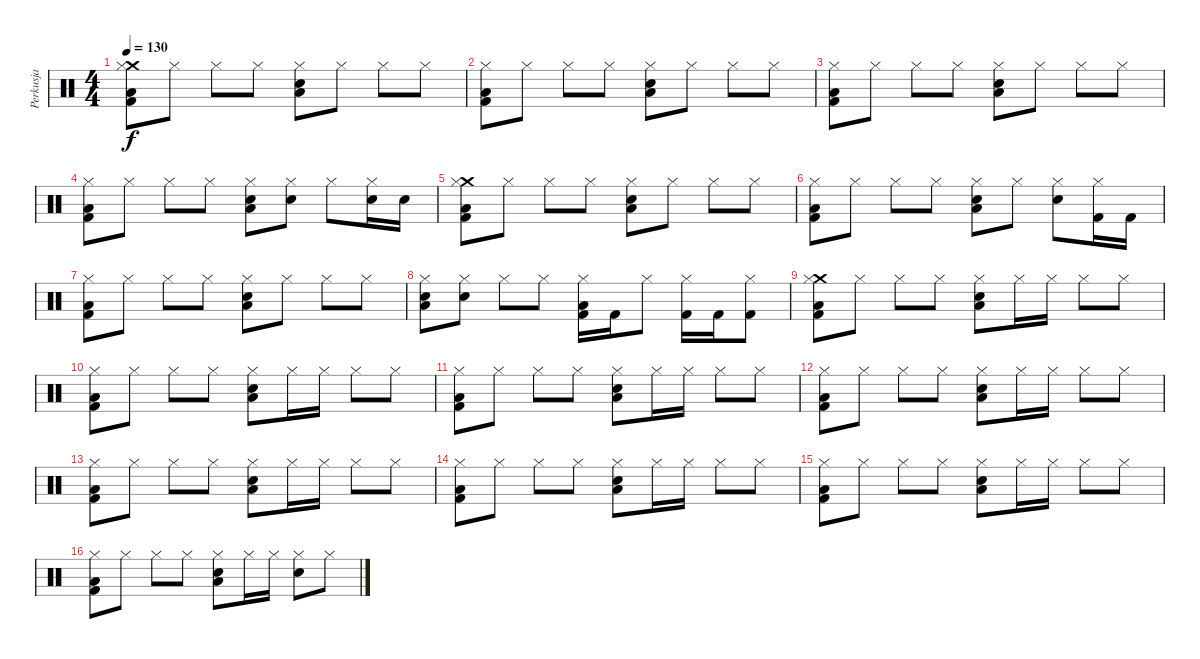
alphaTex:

\track ("Perkusja" "Perkusja") {instrument percussion}
\staff {score}
\articulation defaults
\ts (4 4)
\tempo 130
\clef neutral
\ks c
("Crash medium (hit)" "Kick (hit) 2" "Hi-Hat (closed)" "Low Tom (hit)").8{dy f} "Hi-Hat (closed)".8 "Hi-Hat (closed)".8 "Hi-Hat (closed)".8 ("Snare (hit) 2" "Hi-Hat (closed)" "Low Tom (hit)").8 "Hi-Hat (closed)".8 "Hi-Hat (closed)".8 "Hi-Hat (closed)".8 |
("Kick (hit) 2" "Hi-Hat (closed)" "Low Tom (hit)").8 "Hi-Hat (closed)".8 "Hi-Hat (closed)".8 "Hi-Hat (closed)".8 ("Snare (hit) 2" "Hi-Hat (closed)" "Low Tom (hit)").8 "Hi-Hat (closed)".8 "Hi-Hat (closed)".8 "Hi-Hat (closed)".8 |
("Kick (hit) 2" "Hi-Hat (closed)" "Low Tom (hit)").8 "Hi-Hat (closed)".8 "Hi-Hat (closed)".8 "Hi-Hat (closed)".8 ("Snare (hit) 2" "Hi-Hat (closed)" "Low Tom (hit)").8 "Hi-Hat (closed)".8 "Hi-Hat (closed)".8 "Hi-Hat (closed)".8 |
("Kick (hit) 2" "Hi-Hat (closed)" "Low Tom (hit)").8 "Hi-Hat (closed)".8 "Hi-Hat (closed)".8 "Hi-Hat (closed)".8 ("Snare (hit) 2" "Hi-Hat (closed)" "Low Tom (hit)").8 ("Snare (hit) 2" "Hi-Hat (closed)").8 "Hi-Hat (closed)".8 ("Snare (hit) 2" "Hi-Hat (closed)").16 "Snare (hit) 2".16 |
("Crash medium (hit)" "Kick (hit) 2" "Hi-Hat (closed)" "Low Tom (hit)").8 "Hi-Hat (closed)".8 "Hi-Hat (closed)".8 "Hi-Hat (closed)".8 ("Snare (hit) 2" "Hi-Hat (closed)" "Low Tom (hit)").8 "Hi-Hat (closed)".8 "Hi-Hat (closed)".8 "Hi-Hat (closed)".8 |
("Kick (hit) 2" "Hi-Hat (closed)" "Low Tom (hit)").8 "Hi-Hat (closed)".8 "Hi-Hat (closed)".8 "Hi-Hat (closed)".8 ("Snare (hit) 2" "Hi-Hat (closed)" "Low Tom (hit)").8 "Hi-Hat (closed)".8 ("Snare (hit) 2" "Hi-Hat (closed)").8 ("Kick (hit) 2" "Hi-Hat (closed)").16 "Kick (hit) 2".16 |
("Kick (hit) 2" "Hi-Hat (closed)" "Low Tom (hit)").8 "Hi-Hat (closed)".8 "Hi-Hat (closed)".8 "Hi-Hat (closed)".8 ("Snare (hit) 2" "Hi-Hat (closed)" "Low Tom (hit)").8 "Hi-Hat (closed)".8 "Hi-Hat (closed)".8 "Hi-Hat (closed)".8 |
("Snare (hit) 2" "Hi-Hat (closed)" "Low Tom (hit)").8 ("Snare (hit) 2" "Hi-Hat (closed)").8 "Hi-Hat (closed)".8 "Hi-Hat (closed)".8 ("Kick (hit) 2" "Hi-Hat (closed)" "Low Tom (hit)").16 "Kick (hit) 2".16 "Hi-Hat (closed)".8 ("Kick (hit) 2" "Hi-Hat (closed)").16 "Kick (hit) 2".16 ("Kick (hit) 2" "Hi-Hat (closed)").8 |
("Crash medium (hit)" "Kick (hit) 2" "Hi-Hat (closed)" "Low Tom (hit)").8 "Hi-Hat (closed)".8 "Hi-Hat (closed)".8 "Hi-Hat (closed)".8 ("Snare (hit) 2" "Hi-Hat (closed)" "Low Tom (hit)").8 "Hi-Hat (closed)".16 "Hi-Hat (closed)".16 "Hi-Hat (closed)".8 "Hi-Hat (closed)".8 |
("Kick (hit) 2" "Hi-Hat (closed)" "Low Tom (hit)").8 "Hi-Hat (closed)".8 "Hi-Hat (closed)".8 "Hi-Hat (closed)".8 ("Snare (hit) 2" "Hi-Hat (closed)" "Low Tom (hit)").8 "Hi-Hat (closed)".16 "Hi-Hat (closed)".16 "Hi-Hat (closed)".8 "Hi-Hat (closed)".8 |
("Kick (hit) 2" "Hi-Hat (closed)" "Low Tom (hit)").8 "Hi-Hat (closed)".8 "Hi-Hat (closed)".8 "Hi-Hat (closed)".8 ("Snare (hit) 2" "Hi-Hat (closed)" "Low Tom (hit)").8 "Hi-Hat (closed)".16 "Hi-Hat (closed)".16 "Hi-Hat (closed)".8 "Hi-Hat (closed)".8 |
("Kick (hit) 2" "Hi-Hat (closed)" "Low Tom (hit)").8 "Hi-Hat (closed)".8 "Hi-Hat (closed)".8 "Hi-Hat (closed)".8 ("Snare (hit) 2" "Hi-Hat (closed)" "Low Tom (hit)").8 "Hi-Hat (closed)".16 "Hi-Hat (closed)".16 "Hi-Hat (closed)".8 "Hi-Hat (closed)".8 |
("Kick (hit) 2" "Hi-Hat (closed)" "Low Tom (hit)").8 "Hi-Hat (closed)".8 "Hi-Hat (closed)".8 "Hi-Hat (closed)".8 ("Snare (hit) 2" "Hi-Hat (closed)" "Low Tom (hit)").8 "Hi-Hat (closed)".16 "Hi-Hat (closed)".16 "Hi-Hat (closed)".8 "Hi-Hat (closed)".8 |
("Kick (hit) 2" "Hi-Hat (closed)" "Low Tom (hit)").8 "Hi-Hat (closed)".8 "Hi-Hat (closed)".8 "Hi-Hat (closed)".8 ("Snare (hit) 2" "Hi-Hat (closed)" "Low Tom (hit)").8 "Hi-Hat (closed)".16 "Hi-Hat (closed)".16 "Hi-Hat (closed)".8 "Hi-Hat (closed)".8 |
("Kick (hit) 2" "Hi-Hat (closed)" "Low Tom (hit)").8 "Hi-Hat (closed)".8 "Hi-Hat (closed)".8 "Hi-Hat (closed)".8 ("Snare (hit) 2" "Hi-Hat (closed)" "Low Tom (hit)").8 "Hi-Hat (closed)".16 "Hi-Hat (closed)".16 "Hi-Hat (closed)".8 "Hi-Hat (closed)".8 |
("Kick (hit) 2" "Hi-Hat (closed)" "Low Tom (hit)").8 "Hi-Hat (closed)".8 "Hi-Hat (closed)".8 "Hi-Hat (closed)".8 ("Snare (hit) 2" "Hi-Hat (closed)" "Low Tom (hit)").8 "Hi-Hat (closed)".16 "Hi-Hat (closed)".16 ("Snare (hit) 2" "Hi-Hat (closed)").8 "Hi-Hat (closed)".8
